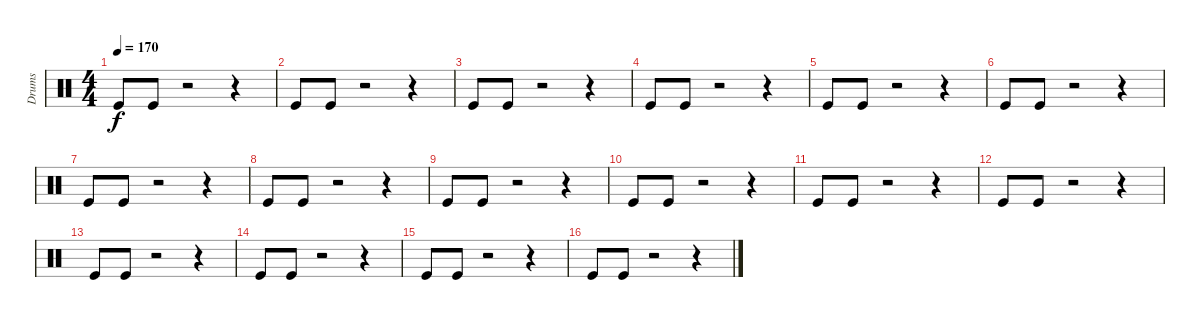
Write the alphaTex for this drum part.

\track ("Drums" "Drums") {instrument percussion}
\staff {score}
\articulation defaults
\ts (4 4)
\tempo 170
\clef neutral
\ks c "Kick (hit)".8{dy f} "Kick (hit)".8
r.2 r.4 |
"Kick (hit)".8 "Kick (hit)".8 r.2 r.4 |
"Kick (hit)".8 "Kick (hit)".8 r.2 r.4 |
"Kick (hit)".8 "Kick (hit)".8 r.2 r.4 |
"Kick (hit)".8 "Kick (hit)".8 r.2 r.4 |
"Kick (hit)".8 "Kick (hit)".8 r.2 r.4 |
"Kick (hit)".8 "Kick (hit)".8 r.2 r.4 |
"Kick (hit)".8 "Kick (hit)".8 r.2 r.4 |
"Kick (hit)".8 "Kick (hit)".8 r.2 r.4 |
"Kick (hit)".8 "Kick (hit)".8 r.2 r.4 |
"Kick (hit)".8 "Kick (hit)".8 r.2 r.4 |
"Kick (hit)".8 "Kick (hit)".8 r.2 r.4 |
"Kick (hit)".8 "Kick (hit)".8 r.2 r.4 |
"Kick (hit)".8 "Kick (hit)".8 r.2 r.4 |
"Kick (hit)".8 "Kick (hit)".8 r.2 r.4 |
"Kick (hit)".8 "Kick (hit)".8 r.2 r.4
